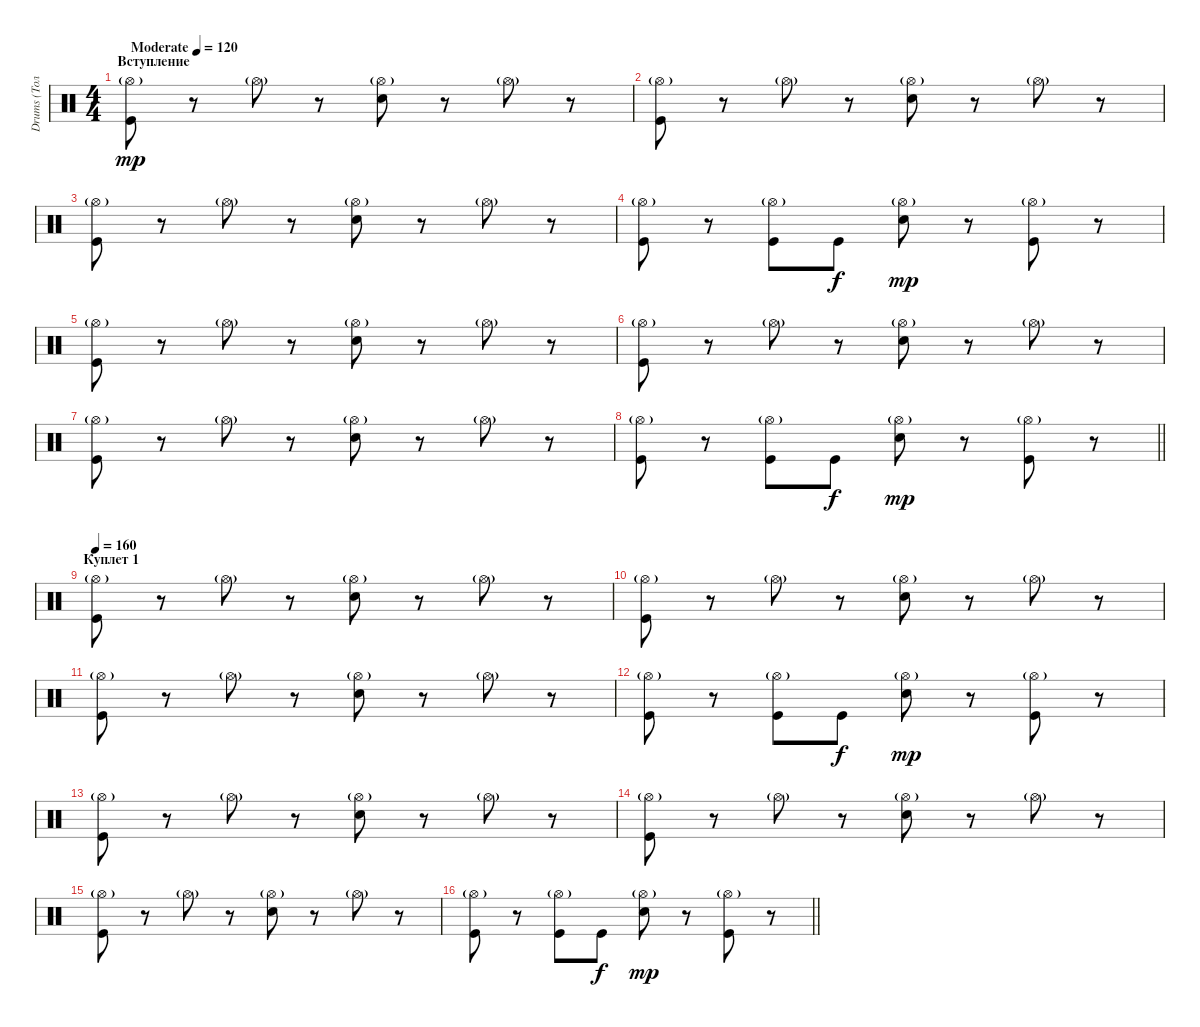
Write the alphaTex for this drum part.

\track ("Drums (Толян)" "Drums (Тол") {instrument percussion}
\staff {score}
\articulation defaults
\ts (4 4)
\section ("" "Вступление")
\tempo (120 "Moderate")
\tempo 160
\tempo 150
\tempo (120 "Moderate")
\clef neutral
\ks c
("Hi-Hat (open)"{g} "Kick (hit)").8{dy mp} r.8 "Hi-Hat (open)"{g}.8 r.8 ("Hi-Hat (open)"{g} "Electric Snare (hit)").8 r.8 "Hi-Hat (open)"{g}.8 r.8 |
("Hi-Hat (open)"{g} "Kick (hit)").8 r.8 "Hi-Hat (open)"{g}.8 r.8 ("Hi-Hat (open)"{g} "Electric Snare (hit)").8 r.8 "Hi-Hat (open)"{g}.8 r.8 |
("Hi-Hat (open)"{g} "Kick (hit)").8 r.8 "Hi-Hat (open)"{g}.8 r.8 ("Hi-Hat (open)"{g} "Electric Snare (hit)").8 r.8 "Hi-Hat (open)"{g}.8 r.8 |
("Hi-Hat (open)"{g} "Kick (hit)").8 r.8 ("Hi-Hat (open)"{g} "Kick (hit)").8 "Kick (hit)".8{dy f} ("Hi-Hat (open)"{g} "Electric Snare (hit)").8{dy mp} r.8 ("Hi-Hat (open)"{g} "Kick (hit)").8 r.8 |
("Hi-Hat (open)"{g} "Kick (hit)").8 r.8 "Hi-Hat (open)"{g}.8 r.8 ("Hi-Hat (open)"{g} "Electric Snare (hit)").8 r.8 "Hi-Hat (open)"{g}.8 r.8 |
("Hi-Hat (open)"{g} "Kick (hit)").8 r.8 "Hi-Hat (open)"{g}.8 r.8 ("Hi-Hat (open)"{g} "Electric Snare (hit)").8 r.8 "Hi-Hat (open)"{g}.8 r.8 |
("Hi-Hat (open)"{g} "Kick (hit)").8 r.8 "Hi-Hat (open)"{g}.8 r.8 ("Hi-Hat (open)"{g} "Electric Snare (hit)").8 r.8 "Hi-Hat (open)"{g}.8 r.8 |
\barLineRight lightlight
("Hi-Hat (open)"{g} "Kick (hit)").8 r.8 ("Hi-Hat (open)"{g} "Kick (hit)").8 "Kick (hit)".8{dy f} ("Hi-Hat (open)"{g} "Electric Snare (hit)").8{dy mp} r.8 ("Hi-Hat (open)"{g} "Kick (hit)").8 r.8 |
\section ("" "Куплет 1")
\tempo 160
("Hi-Hat (open)"{g} "Kick (hit)").8 r.8 "Hi-Hat (open)"{g}.8 r.8 ("Hi-Hat (open)"{g} "Electric Snare (hit)").8 r.8 "Hi-Hat (open)"{g}.8 r.8 |
("Hi-Hat (open)"{g} "Kick (hit)").8 r.8 "Hi-Hat (open)"{g}.8 r.8 ("Hi-Hat (open)"{g} "Electric Snare (hit)").8 r.8 "Hi-Hat (open)"{g}.8 r.8 |
("Hi-Hat (open)"{g} "Kick (hit)").8 r.8 "Hi-Hat (open)"{g}.8 r.8 ("Hi-Hat (open)"{g} "Electric Snare (hit)").8 r.8 "Hi-Hat (open)"{g}.8 r.8 |
("Hi-Hat (open)"{g} "Kick (hit)").8 r.8 ("Hi-Hat (open)"{g} "Kick (hit)").8 "Kick (hit)".8{dy f} ("Hi-Hat (open)"{g} "Electric Snare (hit)").8{dy mp} r.8 ("Hi-Hat (open)"{g} "Kick (hit)").8 r.8 |
("Hi-Hat (open)"{g} "Kick (hit)").8 r.8 "Hi-Hat (open)"{g}.8 r.8 ("Hi-Hat (open)"{g} "Electric Snare (hit)").8 r.8 "Hi-Hat (open)"{g}.8 r.8 |
("Hi-Hat (open)"{g} "Kick (hit)").8 r.8 "Hi-Hat (open)"{g}.8 r.8 ("Hi-Hat (open)"{g} "Electric Snare (hit)").8 r.8 "Hi-Hat (open)"{g}.8 r.8 |
("Hi-Hat (open)"{g} "Kick (hit)").8 r.8 "Hi-Hat (open)"{g}.8 r.8 ("Hi-Hat (open)"{g} "Electric Snare (hit)").8 r.8 "Hi-Hat (open)"{g}.8 r.8 |
\barLineRight lightlight
("Hi-Hat (open)"{g} "Kick (hit)").8 r.8 ("Hi-Hat (open)"{g} "Kick (hit)").8 "Kick (hit)".8{dy f} ("Hi-Hat (open)"{g} "Electric Snare (hit)").8{dy mp} r.8 ("Hi-Hat (open)"{g} "Kick (hit)").8 r.8
